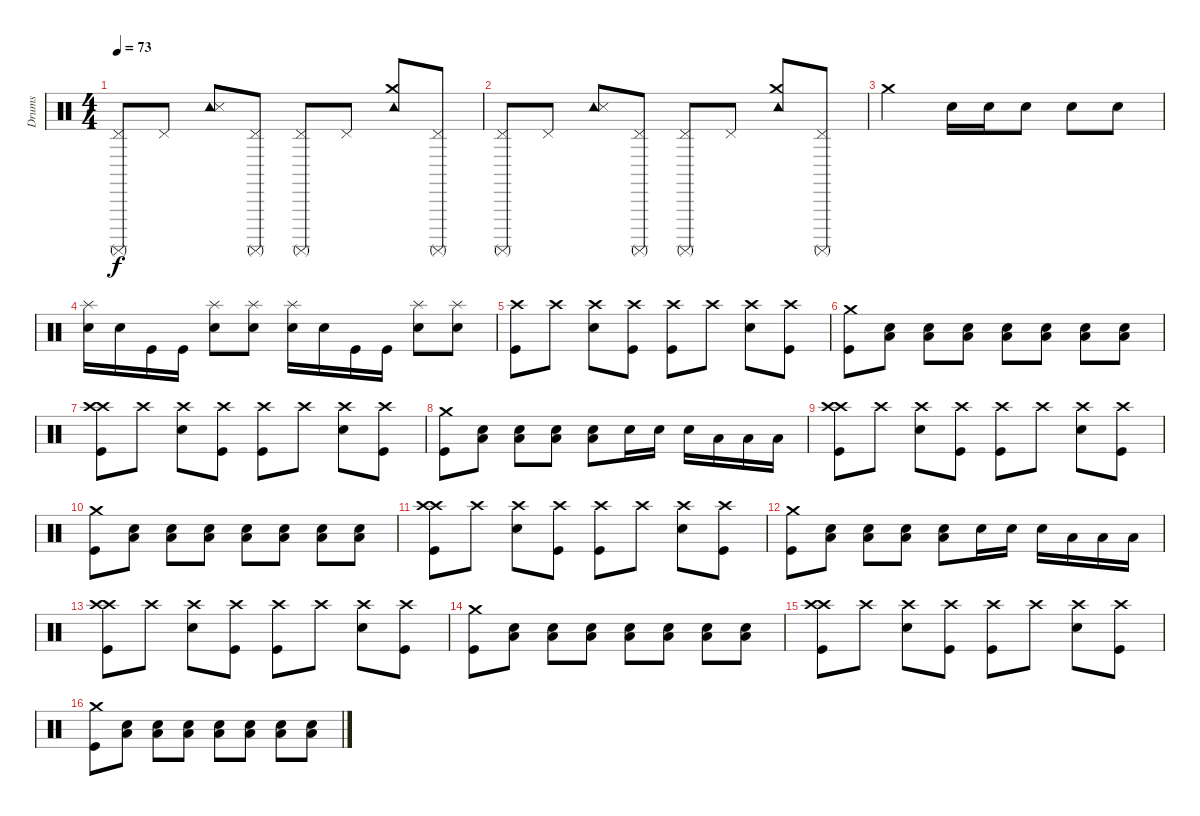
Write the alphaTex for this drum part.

\track ("Drums" "Drums") {instrument percussion}
\staff {score}
\articulation defaults
\ts (4 4)
\tempo 73
\clef neutral
\ks c
("Pedal Hi-Hat (hit)" "Surdo (mute)").8{dy f} "Pedal Hi-Hat (hit)".8 ("Tambourine (hit)" "Snare (side stick) 3").8 ("Pedal Hi-Hat (hit)" "Surdo (mute)").8 ("Pedal Hi-Hat (hit)" "Surdo (mute)").8 "Pedal Hi-Hat (hit)".8 ("Tambourine (hit)" "Crash medium (hit)").8 ("Pedal Hi-Hat (hit)" "Surdo (mute)").8 |
("Pedal Hi-Hat (hit)" "Surdo (mute)").8 "Pedal Hi-Hat (hit)".8 ("Tambourine (hit)" "Snare (side stick) 3").8 ("Pedal Hi-Hat (hit)" "Surdo (mute)").8 ("Pedal Hi-Hat (hit)" "Surdo (mute)").8 "Pedal Hi-Hat (hit)".8 ("Tambourine (hit)" "Crash medium (hit)").8 ("Pedal Hi-Hat (hit)" "Surdo (mute)").8 |
"Crash medium (hit)".2 "Electric Snare (hit)".16 "Electric Snare (hit)".16 "Electric Snare (hit)".8 "Electric Snare (hit)".8 "Electric Snare (hit)".8 |
("Splash (hit)" "Electric Snare (hit)").16 "Electric Snare (hit)".16 "Kick (hit)".16 "Kick (hit)".16 ("Splash (hit)" "Electric Snare (hit)").8 ("Splash (hit)" "Electric Snare (hit)").8 ("Splash (hit)" "Electric Snare (hit)").16 "Electric Snare (hit)".16 "Kick (hit)".16 "Kick (hit)".16 ("Splash (hit)" "Electric Snare (hit)").8 ("Splash (hit)" "Electric Snare (hit)").8 |
("Crash high (hit)" "Kick (hit)").8 "Crash high (hit)".8 ("Crash high (hit)" "Electric Snare (hit)").8 ("Crash high (hit)" "Kick (hit)").8 ("Crash high (hit)" "Kick (hit)").8 "Crash high (hit)".8 ("Crash high (hit)" "Electric Snare (hit)").8 ("Crash high (hit)" "Kick (hit)").8 |
("Crash medium (hit)" "Kick (hit)").8 ("Low Floor Tom (hit)" "Electric Snare (hit)").8 ("Low Floor Tom (hit)" "Electric Snare (hit)").8 ("Low Floor Tom (hit)" "Electric Snare (hit)").8 ("Low Floor Tom (hit)" "Electric Snare (hit)").8 ("Low Floor Tom (hit)" "Electric Snare (hit)").8 ("Low Floor Tom (hit)" "Electric Snare (hit)").8 ("Low Floor Tom (hit)" "Electric Snare (hit)").8 |
("Crash high (hit)" "Crash high (hit)" "Kick (hit)").8 "Crash high (hit)".8 ("Crash high (hit)" "Electric Snare (hit)").8 ("Crash high (hit)" "Kick (hit)").8 ("Crash high (hit)" "Kick (hit)").8 "Crash high (hit)".8 ("Crash high (hit)" "Electric Snare (hit)").8 ("Crash high (hit)" "Kick (hit)").8 |
("Crash medium (hit)" "Kick (hit)").8 ("Low Floor Tom (hit)" "Electric Snare (hit)").8 ("Low Floor Tom (hit)" "Electric Snare (hit)").8 ("Low Floor Tom (hit)" "Electric Snare (hit)").8 ("Low Floor Tom (hit)" "Electric Snare (hit)").8 "Electric Snare (hit)".16 "Electric Snare (hit)".16 "Electric Snare (hit)".16 "Low Tom (hit)".16 "Low Tom (hit)".16 "Low Tom (hit)".16 |
("Crash high (hit)" "Crash high (hit)" "Kick (hit)").8 "Crash high (hit)".8 ("Crash high (hit)" "Electric Snare (hit)").8 ("Crash high (hit)" "Kick (hit)").8 ("Crash high (hit)" "Kick (hit)").8 "Crash high (hit)".8 ("Crash high (hit)" "Electric Snare (hit)").8 ("Crash high (hit)" "Kick (hit)").8 |
("Crash medium (hit)" "Kick (hit)").8 ("Low Floor Tom (hit)" "Electric Snare (hit)").8 ("Low Floor Tom (hit)" "Electric Snare (hit)").8 ("Low Floor Tom (hit)" "Electric Snare (hit)").8 ("Low Floor Tom (hit)" "Electric Snare (hit)").8 ("Low Floor Tom (hit)" "Electric Snare (hit)").8 ("Low Floor Tom (hit)" "Electric Snare (hit)").8 ("Low Floor Tom (hit)" "Electric Snare (hit)").8 |
("Crash high (hit)" "Crash high (hit)" "Kick (hit)").8 "Crash high (hit)".8 ("Crash high (hit)" "Electric Snare (hit)").8 ("Crash high (hit)" "Kick (hit)").8 ("Crash high (hit)" "Kick (hit)").8 "Crash high (hit)".8 ("Crash high (hit)" "Electric Snare (hit)").8 ("Crash high (hit)" "Kick (hit)").8 |
("Crash medium (hit)" "Kick (hit)").8 ("Low Floor Tom (hit)" "Electric Snare (hit)").8 ("Low Floor Tom (hit)" "Electric Snare (hit)").8 ("Low Floor Tom (hit)" "Electric Snare (hit)").8 ("Low Floor Tom (hit)" "Electric Snare (hit)").8 "Electric Snare (hit)".16 "Electric Snare (hit)".16 "Electric Snare (hit)".16 "Low Tom (hit)".16 "Low Tom (hit)".16 "Low Tom (hit)".16 |
("Crash high (hit)" "Crash high (hit)" "Kick (hit)").8 "Crash high (hit)".8 ("Crash high (hit)" "Electric Snare (hit)").8 ("Crash high (hit)" "Kick (hit)").8 ("Crash high (hit)" "Kick (hit)").8 "Crash high (hit)".8 ("Crash high (hit)" "Electric Snare (hit)").8 ("Crash high (hit)" "Kick (hit)").8 |
("Crash medium (hit)" "Kick (hit)").8 ("Low Floor Tom (hit)" "Electric Snare (hit)").8 ("Low Floor Tom (hit)" "Electric Snare (hit)").8 ("Low Floor Tom (hit)" "Electric Snare (hit)").8 ("Low Floor Tom (hit)" "Electric Snare (hit)").8 ("Low Floor Tom (hit)" "Electric Snare (hit)").8 ("Low Floor Tom (hit)" "Electric Snare (hit)").8 ("Low Floor Tom (hit)" "Electric Snare (hit)").8 |
("Crash high (hit)" "Crash high (hit)" "Kick (hit)").8 "Crash high (hit)".8 ("Crash high (hit)" "Electric Snare (hit)").8 ("Crash high (hit)" "Kick (hit)").8 ("Crash high (hit)" "Kick (hit)").8 "Crash high (hit)".8 ("Crash high (hit)" "Electric Snare (hit)").8 ("Crash high (hit)" "Kick (hit)").8 |
("Crash medium (hit)" "Kick (hit)").8 ("Low Floor Tom (hit)" "Electric Snare (hit)").8 ("Low Floor Tom (hit)" "Electric Snare (hit)").8 ("Low Floor Tom (hit)" "Electric Snare (hit)").8 ("Low Floor Tom (hit)" "Electric Snare (hit)").8 ("Low Floor Tom (hit)" "Electric Snare (hit)").8 ("Low Floor Tom (hit)" "Electric Snare (hit)").8 ("Low Floor Tom (hit)" "Electric Snare (hit)").8
